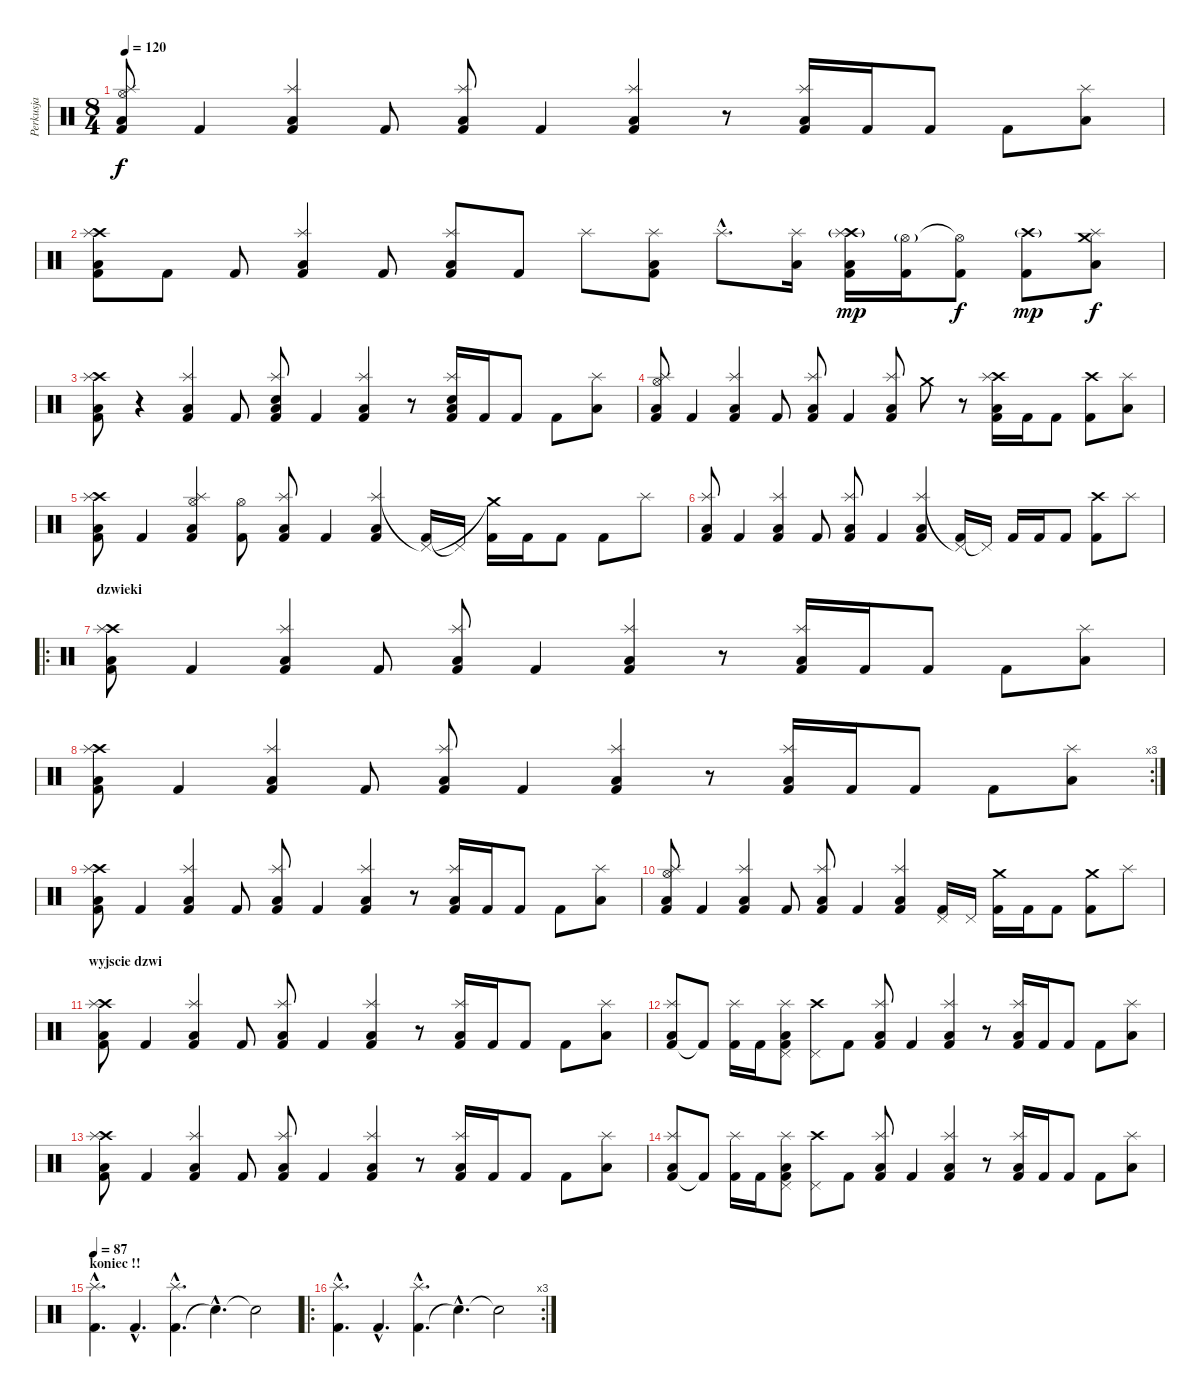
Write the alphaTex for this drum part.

\track ("Perkusja" "Perkusja") {instrument percussion}
\staff {score}
\articulation defaults
\ts (8 4)
\tempo 120
\clef neutral
\ks c
("Kick (hit) 2" "Hi-Hat (open)" "Splash (hit)" "Low Tom (hit)").8{dy f} "Kick (hit) 2".4 ("Kick (hit) 2" "Splash (hit)" "Low Tom (hit)").4 "Kick (hit) 2".8 ("Kick (hit) 2" "Splash (hit)" "Low Tom (hit)").8 "Kick (hit) 2".4 ("Kick (hit) 2" "Splash (hit)" "Low Tom (hit)").4 r.8 ("Kick (hit) 2" "Splash (hit)" "Low Tom (hit)").16 "Kick (hit) 2".16 "Kick (hit) 2".8 "Kick (hit) 2".8 ("Splash (hit)" "Low Tom (hit)").8 |
("Kick (hit) 2" "Crash high (hit)" "Splash (hit)" "Low Tom (hit)").8 "Kick (hit) 2".8 "Kick (hit) 2".8 ("Kick (hit) 2" "Splash (hit)" "Low Tom (hit)").4 "Kick (hit) 2".8 ("Kick (hit) 2" "Splash (hit)" "Low Tom (hit)").8 "Kick (hit) 2".8 "Splash (hit)".8 ("Kick (hit) 2" "Splash (hit)" "Low Tom (hit)").8 "Splash (hit)"{hac}.8{d} ("Splash (hit)" "Low Tom (hit)").16 ("Kick (hit) 2" "Crash high (hit)"{g} "Splash (hit)" "Low Tom (hit)").16{dy mp} ("Kick (hit) 2" "Hi-Hat (open)"{g}).16 ("Kick (hit) 2" "Hi-Hat (open)"{t}).8{dy f} ("Kick (hit) 2" "Crash high (hit)"{g}).8{dy mp} ("Crash medium (hit)" "Splash (hit)" "Low Tom (hit)").8{dy f} |
("Kick (hit) 2" "Crash high (hit)" "Splash (hit)" "Low Tom (hit)").8 r.4 ("Kick (hit) 2" "Splash (hit)" "Low Tom (hit)").4 "Kick (hit) 2".8 ("Kick (hit) 2" "Snare (hit) 2" "Splash (hit)" "Low Tom (hit)").8 "Kick (hit) 2".4 ("Kick (hit) 2" "Splash (hit)" "Low Tom (hit)").4 r.8 ("Kick (hit) 2" "Snare (hit) 2" "Splash (hit)" "Low Tom (hit)").16 "Kick (hit) 2".16 "Kick (hit) 2".8 "Kick (hit) 2".8 ("Splash (hit)" "Low Tom (hit)").8 |
("Kick (hit) 2" "Hi-Hat (open)" "Splash (hit)" "Low Tom (hit)").8 "Kick (hit) 2".4 ("Kick (hit) 2" "Splash (hit)" "Low Tom (hit)").4 "Kick (hit) 2".8 ("Kick (hit) 2" "Splash (hit)" "Low Tom (hit)").8 "Kick (hit) 2".4 ("Kick (hit) 2" "Splash (hit)" "Low Tom (hit)").8 "Crash medium (hit)".8 r.8 ("Kick (hit) 2" "Crash high (hit)" "Splash (hit)" "Low Tom (hit)").16 "Kick (hit) 2".16 "Kick (hit) 2".8 ("Kick (hit) 2" "Crash high (hit)").8 ("Splash (hit)" "Low Tom (hit)").8 |
("Kick (hit) 2" "Crash high (hit)" "Splash (hit)" "Low Tom (hit)").8 "Kick (hit) 2".4 ("Kick (hit) 2" "Hi-Hat (open)" "Splash (hit)" "Low Tom (hit)").4 ("Kick (hit) 2" "Hi-Hat (open)").8 ("Kick (hit) 2" "Splash (hit)" "Low Tom (hit)").8 "Kick (hit) 2".4 ("Kick (hit) 2" "Splash (hit)" "Low Tom (hit)").4 ("Kick (hit) 2" "Pedal Hi-Hat (hit)"{t}).16 "Pedal Hi-Hat (hit)"{t}.16 ("Kick (hit) 2" "Crash medium (hit)"{t}).16 "Kick (hit) 2".16 "Kick (hit) 2".8 "Kick (hit) 2".8 "Splash (hit)".8 |
("Kick (hit) 2" "Splash (hit)" "Low Tom (hit)").8 "Kick (hit) 2".4 ("Kick (hit) 2" "Splash (hit)" "Low Tom (hit)").4 "Kick (hit) 2".8 ("Kick (hit) 2" "Splash (hit)" "Low Tom (hit)").8 "Kick (hit) 2".4 ("Kick (hit) 2" "Splash (hit)" "Low Tom (hit)").4 ("Kick (hit) 2" "Pedal Hi-Hat (hit)"{t}).16 "Pedal Hi-Hat (hit)"{t}.16 "Kick (hit) 2".16 "Kick (hit) 2".16 "Kick (hit) 2".8 ("Kick (hit) 2" "Crash high (hit)").8 "Splash (hit)".8 |
\ro
\section ("" "dzwieki")
("Kick (hit) 2" "Crash high (hit)" "Splash (hit)" "Low Tom (hit)").8 "Kick (hit) 2".4 ("Kick (hit) 2" "Splash (hit)" "Low Tom (hit)").4 "Kick (hit) 2".8 ("Kick (hit) 2" "Splash (hit)" "Low Tom (hit)").8 "Kick (hit) 2".4 ("Kick (hit) 2" "Splash (hit)" "Low Tom (hit)").4 r.8 ("Kick (hit) 2" "Splash (hit)" "Low Tom (hit)").16 "Kick (hit) 2".16 "Kick (hit) 2".8 "Kick (hit) 2".8 ("Splash (hit)" "Low Tom (hit)").8 |
\rc 3
("Kick (hit) 2" "Crash high (hit)" "Splash (hit)" "Low Tom (hit)").8 "Kick (hit) 2".4 ("Kick (hit) 2" "Splash (hit)" "Low Tom (hit)").4 "Kick (hit) 2".8 ("Kick (hit) 2" "Splash (hit)" "Low Tom (hit)").8 "Kick (hit) 2".4 ("Kick (hit) 2" "Splash (hit)" "Low Tom (hit)").4 r.8 ("Kick (hit) 2" "Splash (hit)" "Low Tom (hit)").16 "Kick (hit) 2".16 "Kick (hit) 2".8 "Kick (hit) 2".8 ("Splash (hit)" "Low Tom (hit)").8 |
("Kick (hit) 2" "Crash high (hit)" "Splash (hit)" "Low Tom (hit)").8 "Kick (hit) 2".4 ("Kick (hit) 2" "Splash (hit)" "Low Tom (hit)").4 "Kick (hit) 2".8 ("Kick (hit) 2" "Splash (hit)" "Low Tom (hit)").8 "Kick (hit) 2".4 ("Kick (hit) 2" "Splash (hit)" "Low Tom (hit)").4 r.8 ("Kick (hit) 2" "Splash (hit)" "Low Tom (hit)").16 "Kick (hit) 2".16 "Kick (hit) 2".8 "Kick (hit) 2".8 ("Splash (hit)" "Low Tom (hit)").8 |
("Kick (hit) 2" "Hi-Hat (open)" "Splash (hit)" "Low Tom (hit)").8 "Kick (hit) 2".4 ("Kick (hit) 2" "Splash (hit)" "Low Tom (hit)").4 "Kick (hit) 2".8 ("Kick (hit) 2" "Splash (hit)" "Low Tom (hit)").8 "Kick (hit) 2".4 ("Kick (hit) 2" "Splash (hit)" "Low Tom (hit)").4 ("Kick (hit) 2" "Pedal Hi-Hat (hit)").16 "Pedal Hi-Hat (hit)".16 ("Kick (hit) 2" "Crash medium (hit)").16 "Kick (hit) 2".16 "Kick (hit) 2".8 ("Kick (hit) 2" "Crash medium (hit)").8 "Splash (hit)".8 |
\section ("" "wyjscie dzwi")
("Kick (hit) 2" "Crash high (hit)" "Splash (hit)" "Low Tom (hit)").8 "Kick (hit) 2".4 ("Kick (hit) 2" "Splash (hit)" "Low Tom (hit)").4 "Kick (hit) 2".8 ("Kick (hit) 2" "Splash (hit)" "Low Tom (hit)").8 "Kick (hit) 2".4 ("Kick (hit) 2" "Splash (hit)" "Low Tom (hit)").4 r.8 ("Kick (hit) 2" "Splash (hit)" "Low Tom (hit)").16 "Kick (hit) 2".16 "Kick (hit) 2".8 "Kick (hit) 2".8 ("Splash (hit)" "Low Tom (hit)").8 |
("Kick (hit) 2" "Splash (hit)" "Low Tom (hit)").8 "Kick (hit) 2"{t}.8 ("Kick (hit) 2" "Splash (hit)").16 "Kick (hit) 2".16 ("Kick (hit) 2" "Pedal Hi-Hat (hit)" "Splash (hit)" "Low Tom (hit)").8 ("Crash high (hit)" "Pedal Hi-Hat (hit)").8 "Kick (hit) 2".8 ("Kick (hit) 2" "Splash (hit)" "Low Tom (hit)").8 "Kick (hit) 2".4 ("Kick (hit) 2" "Splash (hit)" "Low Tom (hit)").4 r.8 ("Kick (hit) 2" "Splash (hit)" "Low Tom (hit)").16 "Kick (hit) 2".16 "Kick (hit) 2".8 "Kick (hit) 2".8 ("Splash (hit)" "Low Tom (hit)").8 |
("Kick (hit) 2" "Crash high (hit)" "Splash (hit)" "Low Tom (hit)").8 "Kick (hit) 2".4 ("Kick (hit) 2" "Splash (hit)" "Low Tom (hit)").4 "Kick (hit) 2".8 ("Kick (hit) 2" "Splash (hit)" "Low Tom (hit)").8 "Kick (hit) 2".4 ("Kick (hit) 2" "Splash (hit)" "Low Tom (hit)").4 r.8 ("Kick (hit) 2" "Splash (hit)" "Low Tom (hit)").16 "Kick (hit) 2".16 "Kick (hit) 2".8 "Kick (hit) 2".8 ("Splash (hit)" "Low Tom (hit)").8 |
("Kick (hit) 2" "Splash (hit)" "Low Tom (hit)").8 "Kick (hit) 2"{t}.8 ("Kick (hit) 2" "Splash (hit)").16 "Kick (hit) 2".16 ("Kick (hit) 2" "Pedal Hi-Hat (hit)" "Splash (hit)" "Low Tom (hit)").8 ("Crash high (hit)" "Pedal Hi-Hat (hit)").8 "Kick (hit) 2".8 ("Kick (hit) 2" "Splash (hit)" "Low Tom (hit)").8 "Kick (hit) 2".4 ("Kick (hit) 2" "Splash (hit)" "Low Tom (hit)").4 r.8 ("Kick (hit) 2" "Splash (hit)" "Low Tom (hit)").16 "Kick (hit) 2".16 "Kick (hit) 2".8 "Kick (hit) 2".8 ("Splash (hit)" "Low Tom (hit)").8 |
\section ("" "koniec !!")
\tempo 87
("Kick (hit) 2"{hac} "Splash (hit)"{hac}).4{d} "Kick (hit) 2"{hac}.4{d} ("Kick (hit) 2"{hac} "Splash (hit)"{hac}).4{d} "Snare (hit) 2"{hac t}.4{d} "Snare (hit)"{t}.2 |
\ro
\rc 3
("Kick (hit) 2"{hac} "Splash (hit)"{hac}).4{d} "Kick (hit) 2"{hac}.4{d} ("Kick (hit) 2"{hac} "Splash (hit)"{hac}).4{d} "Snare (hit) 2"{hac t}.4{d} "Snare (hit)"{t}.2
